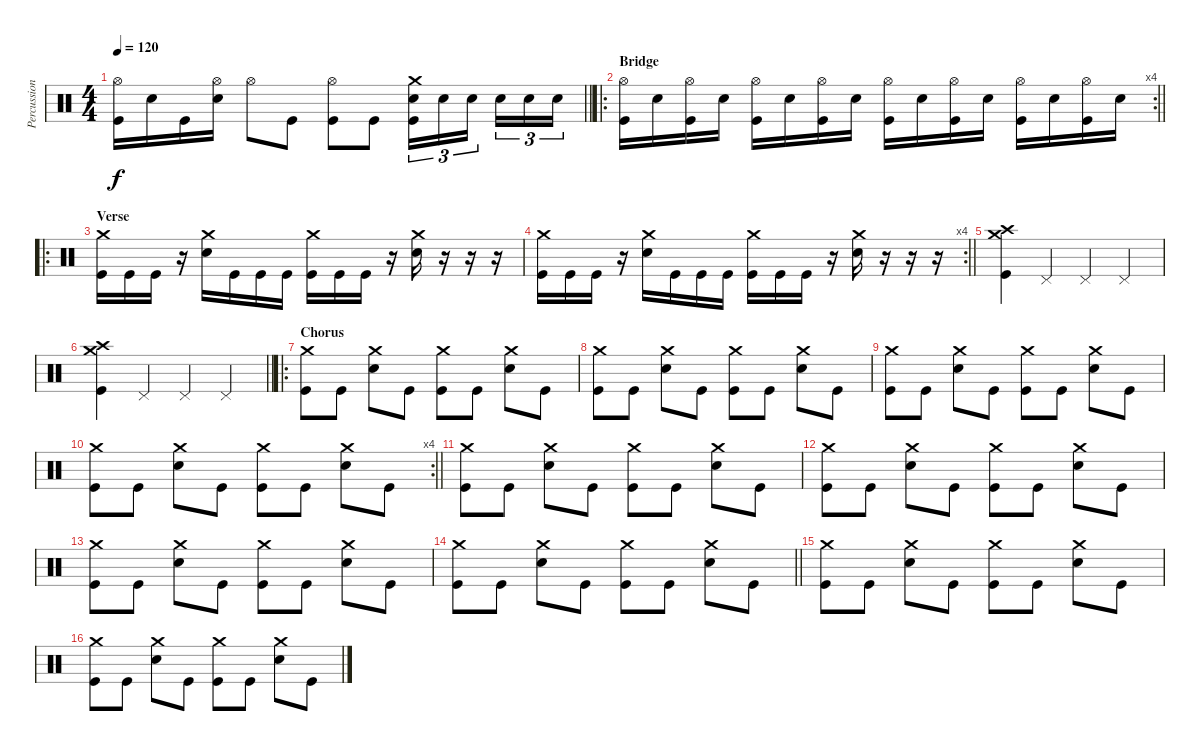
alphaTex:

\track ("Percussion" "Percussion") {instrument percussion}
\staff {score}
\articulation defaults
\ts (4 4)
\tempo 120
\clef neutral
\barLineRight lightlight
\ks c
("Hi-Hat (open)" "Kick (hit)").16{dy f} "Snare (hit) 2".16 "Kick (hit)".16 ("Hi-Hat (open)" "Snare (hit) 2").16 "Hi-Hat (open)".8 "Kick (hit)".8 ("Hi-Hat (open)" "Kick (hit)").8 "Kick (hit)".8 ("Crash medium (hit)" "Snare (hit) 2" "Kick (hit)").16{tu (3 2)} "Snare (hit) 2".16{tu (3 2)} "Snare (hit) 2".16{tu (3 2) beam splitsecondary} "Snare (hit) 2".16{tu (3 2)} "Snare (hit) 2".16{tu (3 2)} "Snare (hit) 2".16{tu (3 2)} |
\ro
\rc 4
\section ("" "Bridge")
\barLineRight lightlight
("Hi-Hat (open)" "Kick (hit)").16 "Snare (hit) 2".16 ("Hi-Hat (open)" "Kick (hit)").16 "Snare (hit) 2".16 ("Hi-Hat (open)" "Kick (hit)").16 "Snare (hit) 2".16 ("Hi-Hat (open)" "Kick (hit)").16 "Snare (hit) 2".16 ("Hi-Hat (open)" "Kick (hit)").16 "Snare (hit) 2".16 ("Hi-Hat (open)" "Kick (hit)").16 "Snare (hit) 2".16 ("Hi-Hat (open)" "Kick (hit)").16 "Snare (hit) 2".16 ("Hi-Hat (open)" "Kick (hit)").16 "Snare (hit) 2".16 |
\ro
\section ("" "Verse")
("Crash medium (hit)" "Kick (hit)").16 "Kick (hit)".16 "Kick (hit)".16 r.16 ("Crash medium (hit)" "Snare (hit) 2").16 "Kick (hit)".16 "Kick (hit)".16 "Kick (hit)".16 ("Crash medium (hit)" "Kick (hit)").16 "Kick (hit)".16 "Kick (hit)".16 r.16 ("Crash medium (hit)" "Snare (hit) 2").16 r.16 r.16 r.16 |
\rc 4
\barLineRight lightlight
("Crash medium (hit)" "Kick (hit)").16 "Kick (hit)".16 "Kick (hit)".16 r.16 ("Crash medium (hit)" "Snare (hit) 2").16 "Kick (hit)".16 "Kick (hit)".16 "Kick (hit)".16 ("Crash medium (hit)" "Kick (hit)").16 "Kick (hit)".16 "Kick (hit)".16 r.16 ("Crash medium (hit)" "Snare (hit) 2").16 r.16 r.16 r.16 |
("Crash medium (hit)" "Crash high (hit)" "Kick (hit)").4 "Pedal Hi-Hat (hit)".4 "Pedal Hi-Hat (hit)".4 "Pedal Hi-Hat (hit)".4 |
\barLineRight lightlight
("Crash medium (hit)" "Crash high (hit)" "Kick (hit)").4 "Pedal Hi-Hat (hit)".4 "Pedal Hi-Hat (hit)".4 "Pedal Hi-Hat (hit)".4 |
\ro
\section ("" "Chorus")
("Crash medium (hit)" "Kick (hit)").8 "Kick (hit)".8 ("Crash medium (hit)" "Snare (hit) 2").8 "Kick (hit)".8 ("Crash medium (hit)" "Kick (hit)").8 "Kick (hit)".8 ("Crash medium (hit)" "Snare (hit) 2").8 "Kick (hit)".8 |
("Crash medium (hit)" "Kick (hit)").8 "Kick (hit)".8 ("Crash medium (hit)" "Snare (hit) 2").8 "Kick (hit)".8 ("Crash medium (hit)" "Kick (hit)").8 "Kick (hit)".8 ("Crash medium (hit)" "Snare (hit) 2").8 "Kick (hit)".8 |
("Crash medium (hit)" "Kick (hit)").8 "Kick (hit)".8 ("Crash medium (hit)" "Snare (hit) 2").8 "Kick (hit)".8 ("Crash medium (hit)" "Kick (hit)").8 "Kick (hit)".8 ("Crash medium (hit)" "Snare (hit) 2").8 "Kick (hit)".8 |
\rc 4
\barLineRight lightlight
("Crash medium (hit)" "Kick (hit)").8 "Kick (hit)".8 ("Crash medium (hit)" "Snare (hit) 2").8 "Kick (hit)".8 ("Crash medium (hit)" "Kick (hit)").8 "Kick (hit)".8 ("Crash medium (hit)" "Snare (hit) 2").8 "Kick (hit)".8 |
("Crash medium (hit)" "Kick (hit)").8 "Kick (hit)".8 ("Crash medium (hit)" "Snare (hit) 2").8 "Kick (hit)".8 ("Crash medium (hit)" "Kick (hit)").8 "Kick (hit)".8 ("Crash medium (hit)" "Snare (hit) 2").8 "Kick (hit)".8 |
("Crash medium (hit)" "Kick (hit)").8 "Kick (hit)".8 ("Crash medium (hit)" "Snare (hit) 2").8 "Kick (hit)".8 ("Crash medium (hit)" "Kick (hit)").8 "Kick (hit)".8 ("Crash medium (hit)" "Snare (hit) 2").8 "Kick (hit)".8 |
("Crash medium (hit)" "Kick (hit)").8 "Kick (hit)".8 ("Crash medium (hit)" "Snare (hit) 2").8 "Kick (hit)".8 ("Crash medium (hit)" "Kick (hit)").8 "Kick (hit)".8 ("Crash medium (hit)" "Snare (hit) 2").8 "Kick (hit)".8 |
\barLineRight lightlight
("Crash medium (hit)" "Kick (hit)").8 "Kick (hit)".8 ("Crash medium (hit)" "Snare (hit) 2").8 "Kick (hit)".8 ("Crash medium (hit)" "Kick (hit)").8 "Kick (hit)".8 ("Crash medium (hit)" "Snare (hit) 2").8 "Kick (hit)".8 |
("Crash medium (hit)" "Kick (hit)").8 "Kick (hit)".8 ("Crash medium (hit)" "Snare (hit) 2").8 "Kick (hit)".8 ("Crash medium (hit)" "Kick (hit)").8 "Kick (hit)".8 ("Crash medium (hit)" "Snare (hit) 2").8 "Kick (hit)".8 |
("Crash medium (hit)" "Kick (hit)").8 "Kick (hit)".8 ("Crash medium (hit)" "Snare (hit) 2").8 "Kick (hit)".8 ("Crash medium (hit)" "Kick (hit)").8 "Kick (hit)".8 ("Crash medium (hit)" "Snare (hit) 2").8 "Kick (hit)".8
